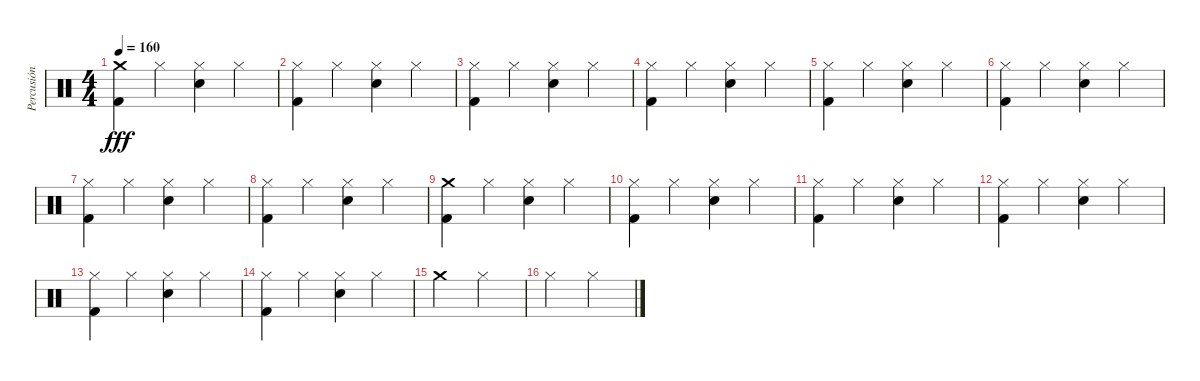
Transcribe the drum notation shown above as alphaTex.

\track ("Percusión" "Percusión") {instrument percussion}
\staff {score}
\articulation defaults
\ts (4 4)
\tempo 160
\clef neutral
\ks c
("Crash medium (hit)" "Kick (hit) 2").4{dy fff} "Hi-Hat (closed)".4 ("Hi-Hat (closed)" "Snare (hit) 2").4 "Hi-Hat (closed)".4 |
("Hi-Hat (closed)" "Kick (hit) 2").4 "Hi-Hat (closed)".4 ("Hi-Hat (closed)" "Snare (hit) 2").4 "Hi-Hat (closed)".4 |
("Hi-Hat (closed)" "Kick (hit) 2").4 "Hi-Hat (closed)".4 ("Hi-Hat (closed)" "Snare (hit) 2").4 "Hi-Hat (closed)".4 |
("Hi-Hat (closed)" "Kick (hit) 2").4 "Hi-Hat (closed)".4 ("Hi-Hat (closed)" "Snare (hit) 2").4 "Hi-Hat (closed)".4 |
("Hi-Hat (closed)" "Kick (hit) 2").4 "Hi-Hat (closed)".4 ("Hi-Hat (closed)" "Snare (hit) 2").4 "Hi-Hat (closed)".4 |
("Hi-Hat (closed)" "Kick (hit) 2").4 "Hi-Hat (closed)".4 ("Hi-Hat (closed)" "Snare (hit) 2").4 "Hi-Hat (closed)".4 |
("Hi-Hat (closed)" "Kick (hit) 2").4 "Hi-Hat (closed)".4 ("Hi-Hat (closed)" "Snare (hit) 2").4 "Hi-Hat (closed)".4 |
("Hi-Hat (closed)" "Kick (hit) 2").4 "Hi-Hat (closed)".4 ("Hi-Hat (closed)" "Snare (hit) 2").4 "Hi-Hat (closed)".4 |
("Crash medium (hit)" "Kick (hit) 2").4 "Hi-Hat (closed)".4 ("Hi-Hat (closed)" "Snare (hit) 2").4 "Hi-Hat (closed)".4 |
("Hi-Hat (closed)" "Kick (hit) 2").4 "Hi-Hat (closed)".4 ("Hi-Hat (closed)" "Snare (hit) 2").4 "Hi-Hat (closed)".4 |
("Hi-Hat (closed)" "Kick (hit) 2").4 "Hi-Hat (closed)".4 ("Hi-Hat (closed)" "Snare (hit) 2").4 "Hi-Hat (closed)".4 |
("Hi-Hat (closed)" "Kick (hit) 2").4 "Hi-Hat (closed)".4 ("Hi-Hat (closed)" "Snare (hit) 2").4 "Hi-Hat (closed)".4 |
("Hi-Hat (closed)" "Kick (hit) 2").4 "Hi-Hat (closed)".4 ("Hi-Hat (closed)" "Snare (hit) 2").4 "Hi-Hat (closed)".4 |
("Hi-Hat (closed)" "Kick (hit) 2").4 "Hi-Hat (closed)".4 ("Hi-Hat (closed)" "Snare (hit) 2").4 "Hi-Hat (closed)".4 |
"Crash medium (hit)".2 "Hi-Hat (closed)".2 |
"Hi-Hat (closed)".2 "Hi-Hat (closed)".2
